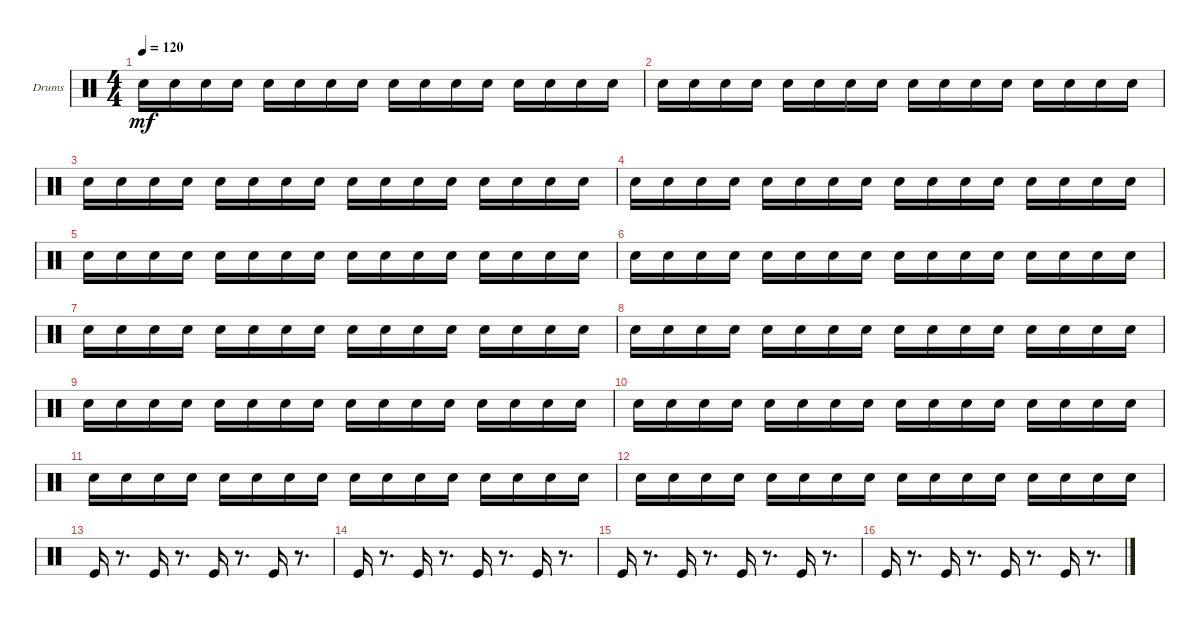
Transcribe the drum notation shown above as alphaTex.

\bracketExtendMode groupsimilarinstruments
\firstSystemTrackNameOrientation horizontal
\otherSystemsTrackNameOrientation horizontal
\track ("Drums" "Drums") {instrument percussion}
\staff {score}
\articulation defaults
\ts (4 4)
\tempo 120
\clef neutral
\ks c "Snare (hit) 2".16{dy mf} "Snare (hit) 2".16 "Snare (hit) 2".16 "Snare (hit) 2".16 "Snare (hit) 2".16 "Snare (hit) 2".16 "Snare (hit) 2".16 "Snare (hit) 2".16 "Snare (hit) 2".16 "Snare (hit) 2".16 "Snare (hit) 2".16 "Snare (hit) 2".16 "Snare (hit) 2".16 "Snare (hit) 2".16 "Snare (hit) 2".16 "Snare (hit) 2".16
|
"Snare (hit) 2".16 "Snare (hit) 2".16 "Snare (hit) 2".16 "Snare (hit) 2".16 "Snare (hit) 2".16 "Snare (hit) 2".16 "Snare (hit) 2".16 "Snare (hit) 2".16 "Snare (hit) 2".16 "Snare (hit) 2".16 "Snare (hit) 2".16 "Snare (hit) 2".16 "Snare (hit) 2".16 "Snare (hit) 2".16 "Snare (hit) 2".16 "Snare (hit) 2".16 |
"Snare (hit) 2".16 "Snare (hit) 2".16 "Snare (hit) 2".16 "Snare (hit) 2".16 "Snare (hit) 2".16 "Snare (hit) 2".16 "Snare (hit) 2".16 "Snare (hit) 2".16 "Snare (hit) 2".16 "Snare (hit) 2".16 "Snare (hit) 2".16 "Snare (hit) 2".16 "Snare (hit) 2".16 "Snare (hit) 2".16 "Snare (hit) 2".16 "Snare (hit) 2".16 |
"Snare (hit) 2".16 "Snare (hit) 2".16 "Snare (hit) 2".16 "Snare (hit) 2".16 "Snare (hit) 2".16 "Snare (hit) 2".16 "Snare (hit) 2".16 "Snare (hit) 2".16 "Snare (hit) 2".16 "Snare (hit) 2".16 "Snare (hit) 2".16 "Snare (hit) 2".16 "Snare (hit) 2".16 "Snare (hit) 2".16 "Snare (hit) 2".16 "Snare (hit) 2".16 |
"Snare (hit) 2".16 "Snare (hit) 2".16 "Snare (hit) 2".16 "Snare (hit) 2".16 "Snare (hit) 2".16 "Snare (hit) 2".16 "Snare (hit) 2".16 "Snare (hit) 2".16 "Snare (hit) 2".16 "Snare (hit) 2".16 "Snare (hit) 2".16 "Snare (hit) 2".16 "Snare (hit) 2".16 "Snare (hit) 2".16 "Snare (hit) 2".16 "Snare (hit) 2".16 |
"Snare (hit) 2".16 "Snare (hit) 2".16 "Snare (hit) 2".16 "Snare (hit) 2".16 "Snare (hit) 2".16 "Snare (hit) 2".16 "Snare (hit) 2".16 "Snare (hit) 2".16 "Snare (hit) 2".16 "Snare (hit) 2".16 "Snare (hit) 2".16 "Snare (hit) 2".16 "Snare (hit) 2".16 "Snare (hit) 2".16 "Snare (hit) 2".16 "Snare (hit) 2".16 |
"Snare (hit) 2".16 "Snare (hit) 2".16 "Snare (hit) 2".16 "Snare (hit) 2".16 "Snare (hit) 2".16 "Snare (hit) 2".16 "Snare (hit) 2".16 "Snare (hit) 2".16 "Snare (hit) 2".16 "Snare (hit) 2".16 "Snare (hit) 2".16 "Snare (hit) 2".16 "Snare (hit) 2".16 "Snare (hit) 2".16 "Snare (hit) 2".16 "Snare (hit) 2".16 |
"Snare (hit) 2".16 "Snare (hit) 2".16 "Snare (hit) 2".16 "Snare (hit) 2".16 "Snare (hit) 2".16 "Snare (hit) 2".16 "Snare (hit) 2".16 "Snare (hit) 2".16 "Snare (hit) 2".16 "Snare (hit) 2".16 "Snare (hit) 2".16 "Snare (hit) 2".16 "Snare (hit) 2".16 "Snare (hit) 2".16 "Snare (hit) 2".16 "Snare (hit) 2".16 |
"Snare (hit) 2".16 "Snare (hit) 2".16 "Snare (hit) 2".16 "Snare (hit) 2".16 "Snare (hit) 2".16 "Snare (hit) 2".16 "Snare (hit) 2".16 "Snare (hit) 2".16 "Snare (hit) 2".16 "Snare (hit) 2".16 "Snare (hit) 2".16 "Snare (hit) 2".16 "Snare (hit) 2".16 "Snare (hit) 2".16 "Snare (hit) 2".16 "Snare (hit) 2".16 |
"Snare (hit) 2".16 "Snare (hit) 2".16 "Snare (hit) 2".16 "Snare (hit) 2".16 "Snare (hit) 2".16 "Snare (hit) 2".16 "Snare (hit) 2".16 "Snare (hit) 2".16 "Snare (hit) 2".16 "Snare (hit) 2".16 "Snare (hit) 2".16 "Snare (hit) 2".16 "Snare (hit) 2".16 "Snare (hit) 2".16 "Snare (hit) 2".16 "Snare (hit) 2".16 |
"Snare (hit) 2".16 "Snare (hit) 2".16 "Snare (hit) 2".16 "Snare (hit) 2".16 "Snare (hit) 2".16 "Snare (hit) 2".16 "Snare (hit) 2".16 "Snare (hit) 2".16 "Snare (hit) 2".16 "Snare (hit) 2".16 "Snare (hit) 2".16 "Snare (hit) 2".16 "Snare (hit) 2".16 "Snare (hit) 2".16 "Snare (hit) 2".16 "Snare (hit) 2".16 |
"Snare (hit) 2".16 "Snare (hit) 2".16 "Snare (hit) 2".16 "Snare (hit) 2".16 "Snare (hit) 2".16 "Snare (hit) 2".16 "Snare (hit) 2".16 "Snare (hit) 2".16 "Snare (hit) 2".16 "Snare (hit) 2".16 "Snare (hit) 2".16 "Snare (hit) 2".16 "Snare (hit) 2".16 "Snare (hit) 2".16 "Snare (hit) 2".16 "Snare (hit) 2".16 |
"Kick (hit)".16 r.8{d} "Kick (hit)".16 r.8{d} "Kick (hit)".16 r.8{d} "Kick (hit)".16 r.8{d} |
"Kick (hit)".16 r.8{d} "Kick (hit)".16 r.8{d} "Kick (hit)".16 r.8{d} "Kick (hit)".16 r.8{d} |
"Kick (hit)".16 r.8{d} "Kick (hit)".16 r.8{d} "Kick (hit)".16 r.8{d} "Kick (hit)".16 r.8{d} |
"Kick (hit)".16 r.8{d} "Kick (hit)".16 r.8{d} "Kick (hit)".16 r.8{d} "Kick (hit)".16 r.8{d}
